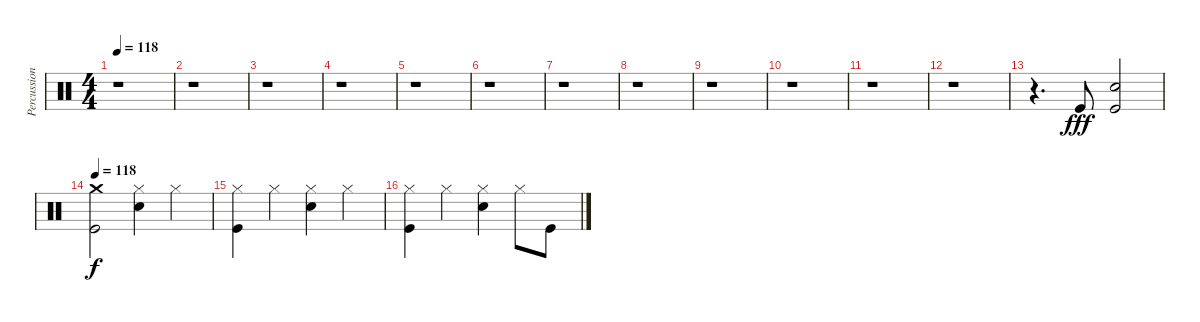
\track ("Percussioni" "Percussion") {instrument percussion}
\staff {score}
\articulation defaults
\ts (4 4)
\tempo 118
\clef neutral
\ks c
r.1{dy f} |
r.1 |
r.1 |
r.1 |
r.1 |
r.1 |
r.1 |
r.1 |
r.1 |
r.1 |
r.1 |
r.1 |
r.4{d} "Kick (hit)".8{dy fff} ("Snare (hit) 2" "Kick (hit)").2 |
\tempo 118
("Crash medium (hit)" "Kick (hit)").2{dy f} ("Hi-Hat (closed)" "Snare (hit) 2").4 "Hi-Hat (closed)".4 |
("Hi-Hat (closed)" "Kick (hit)").4 "Hi-Hat (closed)".4 ("Hi-Hat (closed)" "Snare (hit) 2").4 "Hi-Hat (closed)".4 |
("Hi-Hat (closed)" "Kick (hit)").4 "Hi-Hat (closed)".4 ("Hi-Hat (closed)" "Snare (hit) 2").4 "Hi-Hat (closed)".8 "Kick (hit)".8
